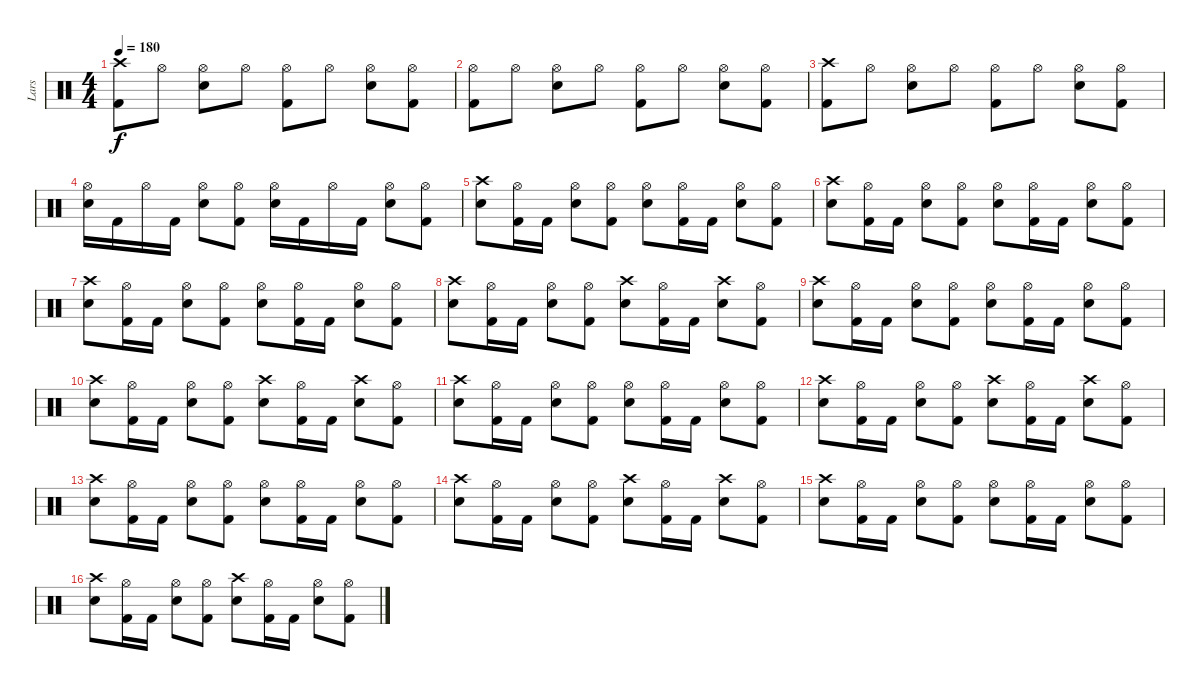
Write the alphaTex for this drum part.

\track ("Lars" "Lars") {instrument percussion}
\staff {score}
\articulation defaults
\ts (4 4)
\tempo 180
\clef neutral
\ks c
("Kick (hit) 2" "Crash high (hit)").8{dy f} "Hi-Hat (open)".8 ("Snare (hit) 2" "Hi-Hat (open)").8 "Hi-Hat (open)".8 ("Kick (hit) 2" "Hi-Hat (open)").8 "Hi-Hat (open)".8 ("Snare (hit) 2" "Hi-Hat (open)").8 ("Kick (hit) 2" "Hi-Hat (open)").8 |
("Kick (hit) 2" "Hi-Hat (open)").8 "Hi-Hat (open)".8 ("Snare (hit) 2" "Hi-Hat (open)").8 "Hi-Hat (open)".8 ("Kick (hit) 2" "Hi-Hat (open)").8 "Hi-Hat (open)".8 ("Snare (hit) 2" "Hi-Hat (open)").8 ("Kick (hit) 2" "Hi-Hat (open)").8 |
("Kick (hit) 2" "Crash high (hit)").8 "Hi-Hat (open)".8 ("Snare (hit) 2" "Hi-Hat (open)").8 "Hi-Hat (open)".8 ("Kick (hit) 2" "Hi-Hat (open)").8 "Hi-Hat (open)".8 ("Snare (hit) 2" "Hi-Hat (open)").8 ("Kick (hit) 2" "Hi-Hat (open)").8 |
("Snare (hit) 2" "Hi-Hat (open)").16 "Kick (hit) 2".16 "Hi-Hat (open)".16 "Kick (hit) 2".16 ("Snare (hit) 2" "Hi-Hat (open)").8 ("Kick (hit) 2" "Hi-Hat (open)").8 ("Snare (hit) 2" "Hi-Hat (open)").16 "Kick (hit) 2".16 "Hi-Hat (open)".16 "Kick (hit) 2".16 ("Snare (hit) 2" "Hi-Hat (open)").8 ("Kick (hit) 2" "Hi-Hat (open)").8 |
("Snare (hit) 2" "Crash high (hit)").8 ("Kick (hit) 2" "Hi-Hat (open)").16 "Kick (hit) 2".16 ("Snare (hit) 2" "Hi-Hat (open)").8 ("Kick (hit) 2" "Hi-Hat (open)").8 ("Snare (hit) 2" "Hi-Hat (open)").8 ("Kick (hit) 2" "Hi-Hat (open)").16 "Kick (hit) 2".16 ("Snare (hit) 2" "Hi-Hat (open)").8 ("Kick (hit) 2" "Hi-Hat (open)").8 |
("Snare (hit) 2" "Crash high (hit)").8 ("Kick (hit) 2" "Hi-Hat (open)").16 "Kick (hit) 2".16 ("Snare (hit) 2" "Hi-Hat (open)").8 ("Kick (hit) 2" "Hi-Hat (open)").8 ("Snare (hit) 2" "Hi-Hat (open)").8 ("Kick (hit) 2" "Hi-Hat (open)").16 "Kick (hit) 2".16 ("Snare (hit) 2" "Hi-Hat (open)").8 ("Kick (hit) 2" "Hi-Hat (open)").8 |
("Snare (hit) 2" "Crash high (hit)").8 ("Kick (hit) 2" "Hi-Hat (open)").16 "Kick (hit) 2".16 ("Snare (hit) 2" "Hi-Hat (open)").8 ("Kick (hit) 2" "Hi-Hat (open)").8 ("Snare (hit) 2" "Hi-Hat (open)").8 ("Kick (hit) 2" "Hi-Hat (open)").16 "Kick (hit) 2".16 ("Snare (hit) 2" "Hi-Hat (open)").8 ("Kick (hit) 2" "Hi-Hat (open)").8 |
("Snare (hit) 2" "Crash high (hit)").8 ("Kick (hit) 2" "Hi-Hat (open)").16 "Kick (hit) 2".16 ("Snare (hit) 2" "Hi-Hat (open)").8 ("Kick (hit) 2" "Hi-Hat (open)").8 ("Snare (hit) 2" "Crash high (hit)").8 ("Kick (hit) 2" "Hi-Hat (open)").16 "Kick (hit) 2".16 ("Snare (hit) 2" "Crash high (hit)").8 ("Kick (hit) 2" "Hi-Hat (open)").8 |
("Snare (hit) 2" "Crash high (hit)").8 ("Kick (hit) 2" "Hi-Hat (open)").16 "Kick (hit) 2".16 ("Snare (hit) 2" "Hi-Hat (open)").8 ("Kick (hit) 2" "Hi-Hat (open)").8 ("Snare (hit) 2" "Hi-Hat (open)").8 ("Kick (hit) 2" "Hi-Hat (open)").16 "Kick (hit) 2".16 ("Snare (hit) 2" "Hi-Hat (open)").8 ("Kick (hit) 2" "Hi-Hat (open)").8 |
("Snare (hit) 2" "Crash high (hit)").8 ("Kick (hit) 2" "Hi-Hat (open)").16 "Kick (hit) 2".16 ("Snare (hit) 2" "Hi-Hat (open)").8 ("Kick (hit) 2" "Hi-Hat (open)").8 ("Snare (hit) 2" "Crash high (hit)").8 ("Kick (hit) 2" "Hi-Hat (open)").16 "Kick (hit) 2".16 ("Snare (hit) 2" "Crash high (hit)").8 ("Kick (hit) 2" "Hi-Hat (open)").8 |
("Snare (hit) 2" "Crash high (hit)").8 ("Kick (hit) 2" "Hi-Hat (open)").16 "Kick (hit) 2".16 ("Snare (hit) 2" "Hi-Hat (open)").8 ("Kick (hit) 2" "Hi-Hat (open)").8 ("Snare (hit) 2" "Hi-Hat (open)").8 ("Kick (hit) 2" "Hi-Hat (open)").16 "Kick (hit) 2".16 ("Snare (hit) 2" "Hi-Hat (open)").8 ("Kick (hit) 2" "Hi-Hat (open)").8 |
("Snare (hit) 2" "Crash high (hit)").8 ("Kick (hit) 2" "Hi-Hat (open)").16 "Kick (hit) 2".16 ("Snare (hit) 2" "Hi-Hat (open)").8 ("Kick (hit) 2" "Hi-Hat (open)").8 ("Snare (hit) 2" "Crash high (hit)").8 ("Kick (hit) 2" "Hi-Hat (open)").16 "Kick (hit) 2".16 ("Snare (hit) 2" "Crash high (hit)").8 ("Kick (hit) 2" "Hi-Hat (open)").8 |
("Snare (hit) 2" "Crash high (hit)").8 ("Kick (hit) 2" "Hi-Hat (open)").16 "Kick (hit) 2".16 ("Snare (hit) 2" "Hi-Hat (open)").8 ("Kick (hit) 2" "Hi-Hat (open)").8 ("Snare (hit) 2" "Hi-Hat (open)").8 ("Kick (hit) 2" "Hi-Hat (open)").16 "Kick (hit) 2".16 ("Snare (hit) 2" "Hi-Hat (open)").8 ("Kick (hit) 2" "Hi-Hat (open)").8 |
("Snare (hit) 2" "Crash high (hit)").8 ("Kick (hit) 2" "Hi-Hat (open)").16 "Kick (hit) 2".16 ("Snare (hit) 2" "Hi-Hat (open)").8 ("Kick (hit) 2" "Hi-Hat (open)").8 ("Snare (hit) 2" "Crash high (hit)").8 ("Kick (hit) 2" "Hi-Hat (open)").16 "Kick (hit) 2".16 ("Snare (hit) 2" "Crash high (hit)").8 ("Kick (hit) 2" "Hi-Hat (open)").8 |
("Snare (hit) 2" "Crash high (hit)").8 ("Kick (hit) 2" "Hi-Hat (open)").16 "Kick (hit) 2".16 ("Snare (hit) 2" "Hi-Hat (open)").8 ("Kick (hit) 2" "Hi-Hat (open)").8 ("Snare (hit) 2" "Hi-Hat (open)").8 ("Kick (hit) 2" "Hi-Hat (open)").16 "Kick (hit) 2".16 ("Snare (hit) 2" "Hi-Hat (open)").8 ("Kick (hit) 2" "Hi-Hat (open)").8 |
("Snare (hit) 2" "Crash high (hit)").8 ("Kick (hit) 2" "Hi-Hat (open)").16 "Kick (hit) 2".16 ("Snare (hit) 2" "Hi-Hat (open)").8 ("Kick (hit) 2" "Hi-Hat (open)").8 ("Snare (hit) 2" "Crash high (hit)").8 ("Kick (hit) 2" "Hi-Hat (open)").16 "Kick (hit) 2".16 ("Snare (hit) 2" "Hi-Hat (open)").8 ("Kick (hit) 2" "Hi-Hat (open)").8
